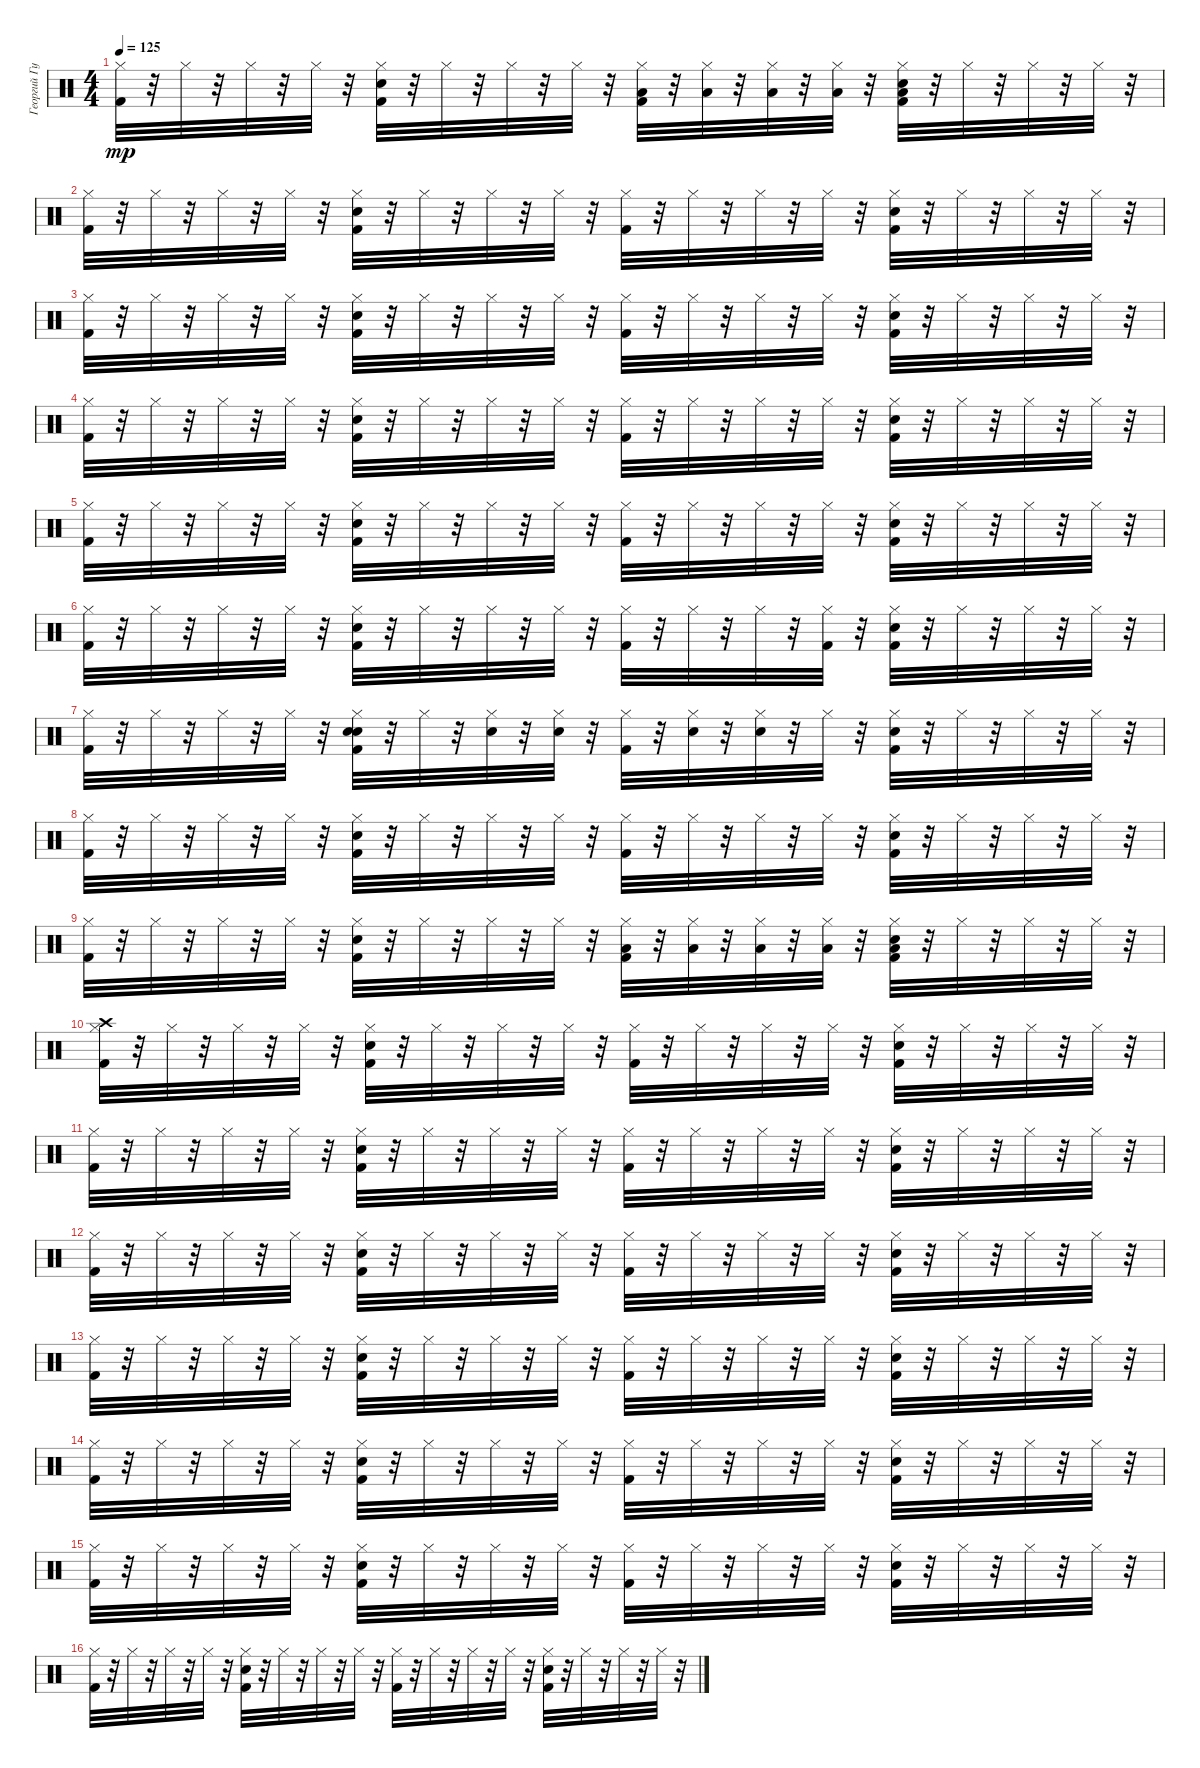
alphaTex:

\track ("Георгий Гурьянов" "Георгий Гу") {instrument percussion}
\staff {score}
\articulation defaults
\ts (4 4)
\tempo 125
\clef neutral
\ks c
("Kick (hit) 2" "Hi-Hat (closed)").32{dy mp} r.32 "Hi-Hat (closed)".32 r.32 "Hi-Hat (closed)".32 r.32 "Hi-Hat (closed)".32 r.32 ("Kick (hit) 2" "Snare (hit) 2" "Hi-Hat (closed)").32 r.32 "Hi-Hat (closed)".32 r.32 "Hi-Hat (closed)".32 r.32 "Hi-Hat (closed)".32 r.32 ("Low Tom (hit)" "Kick (hit) 2" "Hi-Hat (closed)").32 r.32 ("Low Tom (hit)" "Hi-Hat (closed)").32 r.32 ("Low Tom (hit)" "Hi-Hat (closed)").32 r.32 ("Low Tom (hit)" "Hi-Hat (closed)").32 r.32 ("Low Tom (hit)" "Kick (hit) 2" "Snare (hit) 2" "Hi-Hat (closed)").32 r.32 "Hi-Hat (closed)".32 r.32 "Hi-Hat (closed)".32 r.32 "Hi-Hat (closed)".32 r.32 |
("Kick (hit) 2" "Hi-Hat (closed)").32 r.32 "Hi-Hat (closed)".32 r.32 "Hi-Hat (closed)".32 r.32 "Hi-Hat (closed)".32 r.32 ("Kick (hit) 2" "Snare (hit) 2" "Hi-Hat (closed)").32 r.32 "Hi-Hat (closed)".32 r.32 "Hi-Hat (closed)".32 r.32 "Hi-Hat (closed)".32 r.32 ("Kick (hit) 2" "Hi-Hat (closed)").32 r.32 "Hi-Hat (closed)".32 r.32 "Hi-Hat (closed)".32 r.32 "Hi-Hat (closed)".32 r.32 ("Kick (hit) 2" "Snare (hit) 2" "Hi-Hat (closed)").32 r.32 "Hi-Hat (closed)".32 r.32 "Hi-Hat (closed)".32 r.32 "Hi-Hat (closed)".32 r.32 |
("Kick (hit) 2" "Hi-Hat (closed)").32 r.32 "Hi-Hat (closed)".32 r.32 "Hi-Hat (closed)".32 r.32 "Hi-Hat (closed)".32 r.32 ("Kick (hit) 2" "Snare (hit) 2" "Hi-Hat (closed)").32 r.32 "Hi-Hat (closed)".32 r.32 "Hi-Hat (closed)".32 r.32 "Hi-Hat (closed)".32 r.32 ("Kick (hit) 2" "Hi-Hat (closed)").32 r.32 "Hi-Hat (closed)".32 r.32 "Hi-Hat (closed)".32 r.32 "Hi-Hat (closed)".32 r.32 ("Kick (hit) 2" "Snare (hit) 2" "Hi-Hat (closed)").32 r.32 "Hi-Hat (closed)".32 r.32 "Hi-Hat (closed)".32 r.32 "Hi-Hat (closed)".32 r.32 |
("Kick (hit) 2" "Hi-Hat (closed)").32 r.32 "Hi-Hat (closed)".32 r.32 "Hi-Hat (closed)".32 r.32 "Hi-Hat (closed)".32 r.32 ("Kick (hit) 2" "Snare (hit) 2" "Hi-Hat (closed)").32 r.32 "Hi-Hat (closed)".32 r.32 "Hi-Hat (closed)".32 r.32 "Hi-Hat (closed)".32 r.32 ("Kick (hit) 2" "Hi-Hat (closed)").32 r.32 "Hi-Hat (closed)".32 r.32 "Hi-Hat (closed)".32 r.32 "Hi-Hat (closed)".32 r.32 ("Kick (hit) 2" "Snare (hit) 2" "Hi-Hat (closed)").32 r.32 "Hi-Hat (closed)".32 r.32 "Hi-Hat (closed)".32 r.32 "Hi-Hat (closed)".32 r.32 |
("Kick (hit) 2" "Hi-Hat (closed)").32 r.32 "Hi-Hat (closed)".32 r.32 "Hi-Hat (closed)".32 r.32 "Hi-Hat (closed)".32 r.32 ("Kick (hit) 2" "Snare (hit) 2" "Hi-Hat (closed)").32 r.32 "Hi-Hat (closed)".32 r.32 "Hi-Hat (closed)".32 r.32 "Hi-Hat (closed)".32 r.32 ("Kick (hit) 2" "Hi-Hat (closed)").32 r.32 "Hi-Hat (closed)".32 r.32 "Hi-Hat (closed)".32 r.32 "Hi-Hat (closed)".32 r.32 ("Kick (hit) 2" "Snare (hit) 2" "Hi-Hat (closed)").32 r.32 "Hi-Hat (closed)".32 r.32 "Hi-Hat (closed)".32 r.32 "Hi-Hat (closed)".32 r.32 |
("Kick (hit) 2" "Hi-Hat (closed)").32 r.32 "Hi-Hat (closed)".32 r.32 "Hi-Hat (closed)".32 r.32 "Hi-Hat (closed)".32 r.32 ("Kick (hit) 2" "Snare (hit) 2" "Hi-Hat (closed)").32 r.32 "Hi-Hat (closed)".32 r.32 "Hi-Hat (closed)".32 r.32 "Hi-Hat (closed)".32 r.32 ("Kick (hit) 2" "Hi-Hat (closed)").32 r.32 "Hi-Hat (closed)".32 r.32 "Hi-Hat (closed)".32 r.32 ("Kick (hit) 2" "Hi-Hat (closed)").32 r.32 ("Kick (hit) 2" "Snare (hit) 2" "Hi-Hat (closed)").32 r.32 "Hi-Hat (closed)".32 r.32 "Hi-Hat (closed)".32 r.32 "Hi-Hat (closed)".32 r.32 |
("Kick (hit) 2" "Hi-Hat (closed)").32 r.32 "Hi-Hat (closed)".32 r.32 "Hi-Hat (closed)".32 r.32 "Hi-Hat (closed)".32 r.32 ("Hand Clap (hit)" "Kick (hit) 2" "Snare (hit) 2" "Hi-Hat (closed)").32 r.32 "Hi-Hat (closed)".32 r.32 ("Hand Clap (hit)" "Hi-Hat (closed)").32 r.32 ("Hand Clap (hit)" "Hi-Hat (closed)").32 r.32 ("Kick (hit) 2" "Hi-Hat (closed)").32 r.32 ("Hand Clap (hit)" "Hi-Hat (closed)").32 r.32 ("Hand Clap (hit)" "Hi-Hat (closed)").32 r.32 "Hi-Hat (closed)".32 r.32 ("Kick (hit) 2" "Snare (hit) 2" "Hi-Hat (closed)").32 r.32 "Hi-Hat (closed)".32 r.32 "Hi-Hat (closed)".32 r.32 "Hi-Hat (closed)".32 r.32 |
("Kick (hit) 2" "Hi-Hat (closed)").32 r.32 "Hi-Hat (closed)".32 r.32 "Hi-Hat (closed)".32 r.32 "Hi-Hat (closed)".32 r.32 ("Kick (hit) 2" "Snare (hit) 2" "Hi-Hat (closed)").32 r.32 "Hi-Hat (closed)".32 r.32 "Hi-Hat (closed)".32 r.32 "Hi-Hat (closed)".32 r.32 ("Kick (hit) 2" "Hi-Hat (closed)").32 r.32 "Hi-Hat (closed)".32 r.32 "Hi-Hat (closed)".32 r.32 "Hi-Hat (closed)".32 r.32 ("Kick (hit) 2" "Snare (hit) 2" "Hi-Hat (closed)").32 r.32 "Hi-Hat (closed)".32 r.32 "Hi-Hat (closed)".32 r.32 "Hi-Hat (closed)".32 r.32 |
("Kick (hit) 2" "Hi-Hat (closed)").32 r.32 "Hi-Hat (closed)".32 r.32 "Hi-Hat (closed)".32 r.32 "Hi-Hat (closed)".32 r.32 ("Kick (hit) 2" "Snare (hit) 2" "Hi-Hat (closed)").32 r.32 "Hi-Hat (closed)".32 r.32 "Hi-Hat (closed)".32 r.32 "Hi-Hat (closed)".32 r.32 ("Low Tom (hit)" "Kick (hit) 2" "Hi-Hat (closed)").32 r.32 ("Low Tom (hit)" "Hi-Hat (closed)").32 r.32 ("Low Tom (hit)" "Hi-Hat (closed)").32 r.32 ("Low Tom (hit)" "Hi-Hat (closed)").32 r.32 ("Low Tom (hit)" "Kick (hit) 2" "Snare (hit) 2" "Hi-Hat (closed)").32 r.32 "Hi-Hat (closed)".32 r.32 "Hi-Hat (closed)".32 r.32 "Hi-Hat (closed)".32 r.32 |
("Crash high (hit)" "Kick (hit) 2" "Hi-Hat (closed)").32 r.32 "Hi-Hat (closed)".32 r.32 "Hi-Hat (closed)".32 r.32 "Hi-Hat (closed)".32 r.32 ("Kick (hit) 2" "Snare (hit) 2" "Hi-Hat (closed)").32 r.32 "Hi-Hat (closed)".32 r.32 "Hi-Hat (closed)".32 r.32 "Hi-Hat (closed)".32 r.32 ("Kick (hit) 2" "Hi-Hat (closed)").32 r.32 "Hi-Hat (closed)".32 r.32 "Hi-Hat (closed)".32 r.32 "Hi-Hat (closed)".32 r.32 ("Kick (hit) 2" "Snare (hit) 2" "Hi-Hat (closed)").32 r.32 "Hi-Hat (closed)".32 r.32 "Hi-Hat (closed)".32 r.32 "Hi-Hat (closed)".32 r.32 |
("Kick (hit) 2" "Hi-Hat (closed)").32 r.32 "Hi-Hat (closed)".32 r.32 "Hi-Hat (closed)".32 r.32 "Hi-Hat (closed)".32 r.32 ("Kick (hit) 2" "Snare (hit) 2" "Hi-Hat (closed)").32 r.32 "Hi-Hat (closed)".32 r.32 "Hi-Hat (closed)".32 r.32 "Hi-Hat (closed)".32 r.32 ("Kick (hit) 2" "Hi-Hat (closed)").32 r.32 "Hi-Hat (closed)".32 r.32 "Hi-Hat (closed)".32 r.32 "Hi-Hat (closed)".32 r.32 ("Kick (hit) 2" "Snare (hit) 2" "Hi-Hat (closed)").32 r.32 "Hi-Hat (closed)".32 r.32 "Hi-Hat (closed)".32 r.32 "Hi-Hat (closed)".32 r.32 |
("Kick (hit) 2" "Hi-Hat (closed)").32 r.32 "Hi-Hat (closed)".32 r.32 "Hi-Hat (closed)".32 r.32 "Hi-Hat (closed)".32 r.32 ("Kick (hit) 2" "Snare (hit) 2" "Hi-Hat (closed)").32 r.32 "Hi-Hat (closed)".32 r.32 "Hi-Hat (closed)".32 r.32 "Hi-Hat (closed)".32 r.32 ("Kick (hit) 2" "Hi-Hat (closed)").32 r.32 "Hi-Hat (closed)".32 r.32 "Hi-Hat (closed)".32 r.32 "Hi-Hat (closed)".32 r.32 ("Kick (hit) 2" "Snare (hit) 2" "Hi-Hat (closed)").32 r.32 "Hi-Hat (closed)".32 r.32 "Hi-Hat (closed)".32 r.32 "Hi-Hat (closed)".32 r.32 |
("Kick (hit) 2" "Hi-Hat (closed)").32 r.32 "Hi-Hat (closed)".32 r.32 "Hi-Hat (closed)".32 r.32 "Hi-Hat (closed)".32 r.32 ("Kick (hit) 2" "Snare (hit) 2" "Hi-Hat (closed)").32 r.32 "Hi-Hat (closed)".32 r.32 "Hi-Hat (closed)".32 r.32 "Hi-Hat (closed)".32 r.32 ("Kick (hit) 2" "Hi-Hat (closed)").32 r.32 "Hi-Hat (closed)".32 r.32 "Hi-Hat (closed)".32 r.32 "Hi-Hat (closed)".32 r.32 ("Kick (hit) 2" "Snare (hit) 2" "Hi-Hat (closed)").32 r.32 "Hi-Hat (closed)".32 r.32 "Hi-Hat (closed)".32 r.32 "Hi-Hat (closed)".32 r.32 |
("Kick (hit) 2" "Hi-Hat (closed)").32 r.32 "Hi-Hat (closed)".32 r.32 "Hi-Hat (closed)".32 r.32 "Hi-Hat (closed)".32 r.32 ("Kick (hit) 2" "Snare (hit) 2" "Hi-Hat (closed)").32 r.32 "Hi-Hat (closed)".32 r.32 "Hi-Hat (closed)".32 r.32 "Hi-Hat (closed)".32 r.32 ("Kick (hit) 2" "Hi-Hat (closed)").32 r.32 "Hi-Hat (closed)".32 r.32 "Hi-Hat (closed)".32 r.32 "Hi-Hat (closed)".32 r.32 ("Kick (hit) 2" "Snare (hit) 2" "Hi-Hat (closed)").32 r.32 "Hi-Hat (closed)".32 r.32 "Hi-Hat (closed)".32 r.32 "Hi-Hat (closed)".32 r.32 |
("Kick (hit) 2" "Hi-Hat (closed)").32 r.32 "Hi-Hat (closed)".32 r.32 "Hi-Hat (closed)".32 r.32 "Hi-Hat (closed)".32 r.32 ("Kick (hit) 2" "Snare (hit) 2" "Hi-Hat (closed)").32 r.32 "Hi-Hat (closed)".32 r.32 "Hi-Hat (closed)".32 r.32 "Hi-Hat (closed)".32 r.32 ("Kick (hit) 2" "Hi-Hat (closed)").32 r.32 "Hi-Hat (closed)".32 r.32 "Hi-Hat (closed)".32 r.32 "Hi-Hat (closed)".32 r.32 ("Kick (hit) 2" "Snare (hit) 2" "Hi-Hat (closed)").32 r.32 "Hi-Hat (closed)".32 r.32 "Hi-Hat (closed)".32 r.32 "Hi-Hat (closed)".32 r.32 |
("Kick (hit) 2" "Hi-Hat (closed)").32 r.32 "Hi-Hat (closed)".32 r.32 "Hi-Hat (closed)".32 r.32 "Hi-Hat (closed)".32 r.32 ("Kick (hit) 2" "Snare (hit) 2" "Hi-Hat (closed)").32 r.32 "Hi-Hat (closed)".32 r.32 "Hi-Hat (closed)".32 r.32 "Hi-Hat (closed)".32 r.32 ("Kick (hit) 2" "Hi-Hat (closed)").32 r.32 "Hi-Hat (closed)".32 r.32 "Hi-Hat (closed)".32 r.32 "Hi-Hat (closed)".32 r.32 ("Kick (hit) 2" "Snare (hit) 2" "Hi-Hat (closed)").32 r.32 "Hi-Hat (closed)".32 r.32 "Hi-Hat (closed)".32 r.32 "Hi-Hat (closed)".32 r.32
